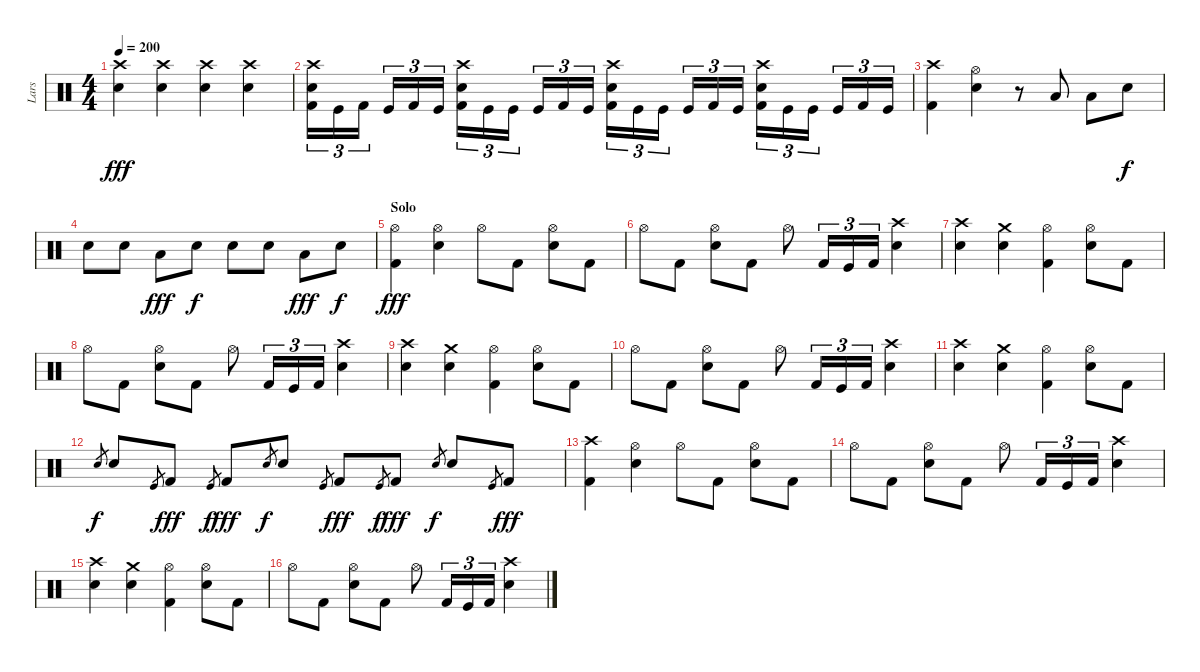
\track ("Lars" "Lars") {instrument percussion}
\staff {score}
\articulation defaults
\ts (4 4)
\tempo 200
\clef neutral
\ks c
("Crash high (hit)" "Snare (hit) 2").4{dy fff} ("Crash high (hit)" "Snare (hit) 2").4 ("Crash high (hit)" "Snare (hit) 2").4 ("Crash high (hit)" "Snare (hit) 2").4 |
("Crash high (hit)" "Snare (hit) 2" "Kick (hit) 2").16{tu (3 2)} "Kick (hit)".16{tu (3 2)} "Kick (hit) 2".16{tu (3 2)} "Kick (hit)".16{tu (3 2)} "Kick (hit) 2".16{tu (3 2)} "Kick (hit)".16{tu (3 2)} ("Crash high (hit)" "Snare (hit) 2" "Kick (hit) 2").16{tu (3 2)} "Kick (hit)".16{tu (3 2)} "Kick (hit)".16{tu (3 2)} "Kick (hit)".16{tu (3 2)} "Kick (hit) 2".16{tu (3 2)} "Kick (hit)".16{tu (3 2)} ("Crash high (hit)" "Snare (hit) 2" "Kick (hit) 2").16{tu (3 2)} "Kick (hit)".16{tu (3 2)} "Kick (hit)".16{tu (3 2)} "Kick (hit)".16{tu (3 2)} "Kick (hit) 2".16{tu (3 2)} "Kick (hit)".16{tu (3 2)} ("Crash high (hit)" "Snare (hit) 2" "Kick (hit) 2").16{tu (3 2)} "Kick (hit)".16{tu (3 2)} "Kick (hit)".16{tu (3 2)} "Kick (hit)".16{tu (3 2)} "Kick (hit) 2".16{tu (3 2)} "Kick (hit)".16{tu (3 2)} |
("Crash high (hit)" "Kick (hit) 2").4 ("Hi-Hat (open)" "Snare (hit) 2").4 r.8 "Low Tom (hit)".8 "Low Tom (hit)".8 "Snare (hit) 2".8{dy f} |
"Snare (hit) 2".8 "Snare (hit) 2".8 "Low Tom (hit)".8{dy fff} "Snare (hit) 2".8{dy f} "Snare (hit) 2".8 "Snare (hit) 2".8 "Low Tom (hit)".8{dy fff} "Snare (hit) 2".8{dy f} |
\section ("" "Solo")
("Hi-Hat (open)" "Kick (hit) 2").4{dy fff} ("Hi-Hat (open)" "Snare (hit) 2").4 "Hi-Hat (open)".8 "Kick (hit) 2".8 ("Hi-Hat (open)" "Snare (hit) 2").8 "Kick (hit) 2".8 |
"Hi-Hat (open)".8 "Kick (hit) 2".8 ("Hi-Hat (open)" "Snare (hit) 2").8 "Kick (hit) 2".8 "Hi-Hat (open)".8 "Kick (hit) 2".16{tu (3 2)} "Kick (hit)".16{tu (3 2)} "Kick (hit) 2".16{tu (3 2)} ("Crash high (hit)" "Snare (hit) 2").4 |
("Crash high (hit)" "Snare (hit) 2").4 ("Crash medium (hit)" "Snare (hit) 2").4 ("Hi-Hat (open)" "Kick (hit) 2").4 ("Hi-Hat (open)" "Snare (hit) 2").8 "Kick (hit) 2".8 |
"Hi-Hat (open)".8 "Kick (hit) 2".8 ("Hi-Hat (open)" "Snare (hit) 2").8 "Kick (hit) 2".8 "Hi-Hat (open)".8 "Kick (hit) 2".16{tu (3 2)} "Kick (hit)".16{tu (3 2)} "Kick (hit) 2".16{tu (3 2)} ("Crash high (hit)" "Snare (hit) 2").4 |
("Crash high (hit)" "Snare (hit) 2").4 ("Crash medium (hit)" "Snare (hit) 2").4 ("Hi-Hat (open)" "Kick (hit) 2").4 ("Hi-Hat (open)" "Snare (hit) 2").8 "Kick (hit) 2".8 |
"Hi-Hat (open)".8 "Kick (hit) 2".8 ("Hi-Hat (open)" "Snare (hit) 2").8 "Kick (hit) 2".8 "Hi-Hat (open)".8 "Kick (hit) 2".16{tu (3 2)} "Kick (hit)".16{tu (3 2)} "Kick (hit) 2".16{tu (3 2)} ("Crash high (hit)" "Snare (hit) 2").4 |
("Crash high (hit)" "Snare (hit) 2").4 ("Crash medium (hit)" "Snare (hit) 2").4 ("Hi-Hat (open)" "Kick (hit) 2").4 ("Hi-Hat (open)" "Snare (hit) 2").8 "Kick (hit) 2".8 |
"Snare (hit) 2".8{gr dy f} "Snare (hit) 2".8 "Kick (hit)".8{gr} "Kick (hit) 2".8{dy fff} "Kick (hit)".8{gr dy f} "Kick (hit) 2".8{dy fff} "Snare (hit) 2".8{gr dy f} "Snare (hit) 2".8 "Kick (hit)".8{gr} "Kick (hit) 2".8{dy fff} "Kick (hit)".8{gr dy f} "Kick (hit) 2".8{dy fff} "Snare (hit) 2".8{gr dy f} "Snare (hit) 2".8 "Kick (hit)".8{gr} "Kick (hit) 2".8{dy fff} |
("Crash high (hit)" "Kick (hit) 2").4 ("Hi-Hat (open)" "Snare (hit) 2").4 "Hi-Hat (open)".8 "Kick (hit) 2".8 ("Hi-Hat (open)" "Snare (hit) 2").8 "Kick (hit) 2".8 |
"Hi-Hat (open)".8 "Kick (hit) 2".8 ("Hi-Hat (open)" "Snare (hit) 2").8 "Kick (hit) 2".8 "Hi-Hat (open)".8 "Kick (hit) 2".16{tu (3 2)} "Kick (hit)".16{tu (3 2)} "Kick (hit) 2".16{tu (3 2)} ("Crash high (hit)" "Snare (hit) 2").4 |
("Crash high (hit)" "Snare (hit) 2").4 ("Crash medium (hit)" "Snare (hit) 2").4 ("Hi-Hat (open)" "Kick (hit) 2").4 ("Hi-Hat (open)" "Snare (hit) 2").8 "Kick (hit) 2".8 |
"Hi-Hat (open)".8 "Kick (hit) 2".8 ("Hi-Hat (open)" "Snare (hit) 2").8 "Kick (hit) 2".8 "Hi-Hat (open)".8 "Kick (hit) 2".16{tu (3 2)} "Kick (hit)".16{tu (3 2)} "Kick (hit) 2".16{tu (3 2)} ("Crash high (hit)" "Snare (hit) 2").4
